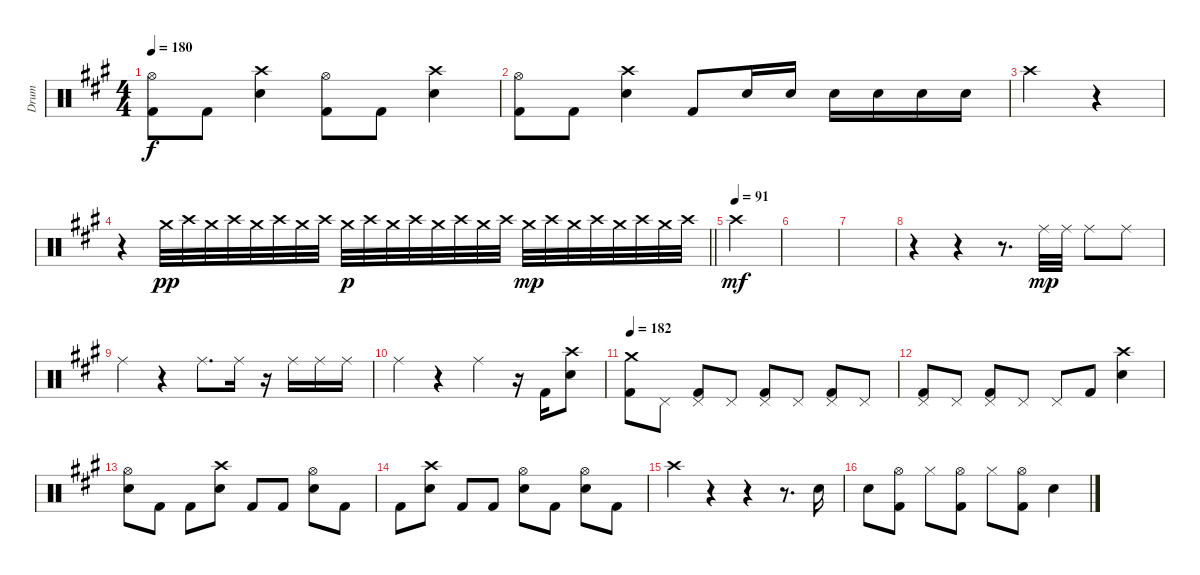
\track ("Drum" "Drum") {instrument percussion}
\staff {score}
\articulation defaults
\ts (4 4)
\tempo 180
\clef neutral
\ks a
("Hi-Hat (open)" "Kick (hit) 2").8{dy f} "Kick (hit) 2".8 ("Crash high (hit)" "Snare (hit) 2").4 ("Hi-Hat (open)" "Kick (hit) 2").8 "Kick (hit) 2".8 ("Crash high (hit)" "Snare (hit) 2").4 |
("Hi-Hat (open)" "Kick (hit) 2").8 "Kick (hit) 2".8 ("Crash high (hit)" "Snare (hit) 2").4 "Kick (hit) 2".8 "Snare (hit) 2".16 "Snare (hit) 2".16 "Snare (hit) 2".16 "Snare (hit) 2".16 "Snare (hit) 2".16 "Snare (hit) 2".16 |
"Crash high (hit)".4 r.4 |
\barLineRight lightlight
r.4 "Crash medium (hit)".32{dy pp} "Crash high (hit)".32 "Crash medium (hit)".32 "Crash high (hit)".32 "Crash medium (hit)".32 "Crash high (hit)".32 "Crash medium (hit)".32 "Crash high (hit)".32 "Crash medium (hit)".32{dy p} "Crash high (hit)".32 "Crash medium (hit)".32 "Crash high (hit)".32 "Crash medium (hit)".32 "Crash high (hit)".32 "Crash medium (hit)".32 "Crash high (hit)".32 "Crash medium (hit)".32{dy mp} "Crash high (hit)".32 "Crash medium (hit)".32 "Crash high (hit)".32 "Crash medium (hit)".32 "Crash high (hit)".32 "Crash medium (hit)".32 "Crash high (hit)".32 |
\tempo (91)
"Crash high (hit)".4{dy mf} |
|
|
r.4 r.4 r.8{d} "Ride (middle)".32{dy mp} "Ride (middle)".32 "Ride (middle)".8 "Ride (middle)".8 |
"Ride (middle)".4 r.4 "Ride (middle)".8{d} "Ride (middle)".16 r.16 "Ride (middle)".16 "Ride (middle)".16 "Ride (middle)".16 |
"Ride (middle)".4 r.4 "Ride (middle)".4 r.16 "Kick (hit) 2".16 ("Crash high (hit)" "Snare (hit) 2").8 |
\tempo 182
("Crash medium (hit)" "Kick (hit) 2").8 "Pedal Hi-Hat (hit)".8 ("Pedal Hi-Hat (hit)" "Kick (hit) 2").8 "Pedal Hi-Hat (hit)".8 ("Pedal Hi-Hat (hit)" "Kick (hit) 2").8 "Pedal Hi-Hat (hit)".8 ("Pedal Hi-Hat (hit)" "Kick (hit) 2").8 "Pedal Hi-Hat (hit)".8 |
("Pedal Hi-Hat (hit)" "Kick (hit) 2").8 "Pedal Hi-Hat (hit)".8 ("Pedal Hi-Hat (hit)" "Kick (hit) 2").8 "Pedal Hi-Hat (hit)".8 "Pedal Hi-Hat (hit)".8 "Kick (hit) 2".8 ("Crash high (hit)" "Snare (hit) 2").4 |
("Hi-Hat (open)" "Snare (hit) 2").8 "Kick (hit) 2".8 "Kick (hit) 2".8 ("Crash high (hit)" "Snare (hit) 2").8 "Kick (hit) 2".8 "Kick (hit) 2".8 ("Hi-Hat (open)" "Snare (hit) 2").8 "Kick (hit) 2".8 |
"Kick (hit) 2".8 ("Crash high (hit)" "Snare (hit) 2").8 "Kick (hit) 2".8 "Kick (hit) 2".8 ("Hi-Hat (open)" "Snare (hit) 2").8 "Kick (hit) 2".8 ("Hi-Hat (open)" "Snare (hit) 2").8 "Kick (hit) 2".8 |
"Crash high (hit)".4 r.4 r.4 r.8{d} "Snare (hit) 2".16 |
"Snare (hit) 2".8 ("Hi-Hat (open)" "Kick (hit) 2").8 "Hi-Hat (closed)".8 ("Hi-Hat (open)" "Kick (hit) 2").8 "Hi-Hat (closed)".8 ("Hi-Hat (open)" "Kick (hit) 2").8 "Snare (hit) 2".4
